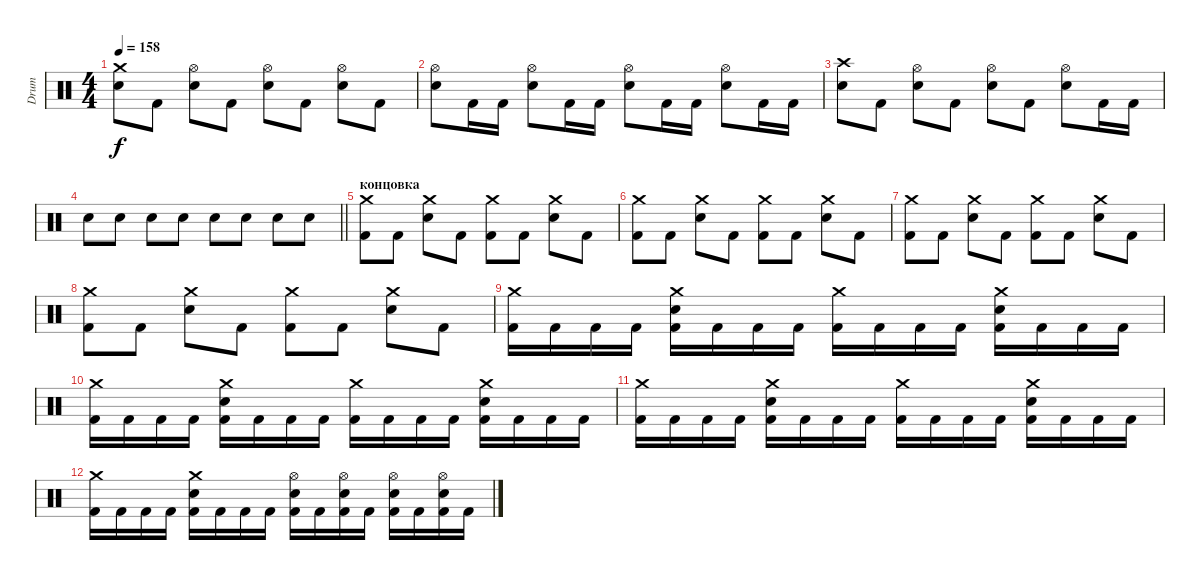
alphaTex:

\track ("Drum" "Drum") {instrument percussion}
\staff {score}
\articulation defaults
\ts (4 4)
\tempo 158
\clef neutral
\ks c
("Crash medium (hit)" "Electric Snare (hit)").8{dy f} "Kick (hit) 2".8 ("Hi-Hat (open)" "Electric Snare (hit)").8 "Kick (hit) 2".8 ("Hi-Hat (open)" "Electric Snare (hit)").8 "Kick (hit) 2".8 ("Hi-Hat (open)" "Electric Snare (hit)").8 "Kick (hit) 2".8 |
("Hi-Hat (open)" "Electric Snare (hit)").8 "Kick (hit) 2".16 "Kick (hit) 2".16 ("Hi-Hat (open)" "Electric Snare (hit)").8 "Kick (hit) 2".16 "Kick (hit) 2".16 ("Hi-Hat (open)" "Electric Snare (hit)").8 "Kick (hit) 2".16 "Kick (hit) 2".16 ("Hi-Hat (open)" "Electric Snare (hit)").8 "Kick (hit) 2".16 "Kick (hit) 2".16 |
("Crash high (hit)" "Electric Snare (hit)").8 "Kick (hit) 2".8 ("Hi-Hat (open)" "Electric Snare (hit)").8 "Kick (hit) 2".8 ("Hi-Hat (open)" "Electric Snare (hit)").8 "Kick (hit) 2".8 ("Hi-Hat (open)" "Electric Snare (hit)").8 "Kick (hit) 2".16 "Kick (hit) 2".16 |
\barLineRight lightlight "Electric Snare (hit)".8 "Electric Snare (hit)".8 "Electric Snare (hit)".8 "Electric Snare (hit)".8 "Electric Snare (hit)".8 "Electric Snare (hit)".8 "Electric Snare (hit)".8 "Electric Snare (hit)".8
|
\section ("" "концовка")
("Crash medium (hit)" "Kick (hit) 2").8 "Kick (hit) 2".8 ("Crash medium (hit)" "Electric Snare (hit)").8 "Kick (hit) 2".8 ("Crash medium (hit)" "Kick (hit) 2").8 "Kick (hit) 2".8 ("Crash medium (hit)" "Electric Snare (hit)").8 "Kick (hit) 2".8 |
("Crash medium (hit)" "Kick (hit) 2").8 "Kick (hit) 2".8 ("Crash medium (hit)" "Electric Snare (hit)").8 "Kick (hit) 2".8 ("Crash medium (hit)" "Kick (hit) 2").8 "Kick (hit) 2".8 ("Crash medium (hit)" "Electric Snare (hit)").8 "Kick (hit) 2".8 |
("Crash medium (hit)" "Kick (hit) 2").8 "Kick (hit) 2".8 ("Crash medium (hit)" "Electric Snare (hit)").8 "Kick (hit) 2".8 ("Crash medium (hit)" "Kick (hit) 2").8 "Kick (hit) 2".8 ("Crash medium (hit)" "Electric Snare (hit)").8 "Kick (hit) 2".8 |
("Crash medium (hit)" "Kick (hit) 2").8 "Kick (hit) 2".8 ("Crash medium (hit)" "Electric Snare (hit)").8 "Kick (hit) 2".8 ("Crash medium (hit)" "Kick (hit) 2").8 "Kick (hit) 2".8 ("Crash medium (hit)" "Electric Snare (hit)").8 "Kick (hit) 2".8 |
("Crash medium (hit)" "Kick (hit) 2").16 "Kick (hit) 2".16 "Kick (hit) 2".16 "Kick (hit) 2".16 ("Electric Snare (hit)" "Crash medium (hit)" "Kick (hit) 2").16 "Kick (hit) 2".16 "Kick (hit) 2".16 "Kick (hit) 2".16 ("Crash medium (hit)" "Kick (hit) 2").16 "Kick (hit) 2".16 "Kick (hit) 2".16 "Kick (hit) 2".16 ("Electric Snare (hit)" "Crash medium (hit)" "Kick (hit) 2").16 "Kick (hit) 2".16 "Kick (hit) 2".16 "Kick (hit) 2".16 |
("Crash medium (hit)" "Kick (hit) 2").16 "Kick (hit) 2".16 "Kick (hit) 2".16 "Kick (hit) 2".16 ("Electric Snare (hit)" "Crash medium (hit)" "Kick (hit) 2").16 "Kick (hit) 2".16 "Kick (hit) 2".16 "Kick (hit) 2".16 ("Crash medium (hit)" "Kick (hit) 2").16 "Kick (hit) 2".16 "Kick (hit) 2".16 "Kick (hit) 2".16 ("Electric Snare (hit)" "Crash medium (hit)" "Kick (hit) 2").16 "Kick (hit) 2".16 "Kick (hit) 2".16 "Kick (hit) 2".16 |
("Crash medium (hit)" "Kick (hit) 2").16 "Kick (hit) 2".16 "Kick (hit) 2".16 "Kick (hit) 2".16 ("Electric Snare (hit)" "Crash medium (hit)" "Kick (hit) 2").16 "Kick (hit) 2".16 "Kick (hit) 2".16 "Kick (hit) 2".16 ("Crash medium (hit)" "Kick (hit) 2").16 "Kick (hit) 2".16 "Kick (hit) 2".16 "Kick (hit) 2".16 ("Electric Snare (hit)" "Crash medium (hit)" "Kick (hit) 2").16 "Kick (hit) 2".16 "Kick (hit) 2".16 "Kick (hit) 2".16 |
("Crash medium (hit)" "Kick (hit) 2").16 "Kick (hit) 2".16 "Kick (hit) 2".16 "Kick (hit) 2".16 ("Electric Snare (hit)" "Crash medium (hit)" "Kick (hit) 2").16 "Kick (hit) 2".16 "Kick (hit) 2".16 "Kick (hit) 2".16 ("Hi-Hat (open)" "Electric Snare (hit)" "Kick (hit) 2").16 "Kick (hit) 2".16 ("Hi-Hat (open)" "Electric Snare (hit)" "Kick (hit) 2").16 "Kick (hit) 2".16 ("Hi-Hat (open)" "Electric Snare (hit)" "Kick (hit) 2").16 "Kick (hit) 2".16 ("Hi-Hat (open)" "Electric Snare (hit)" "Kick (hit) 2").16 "Kick (hit) 2".16
